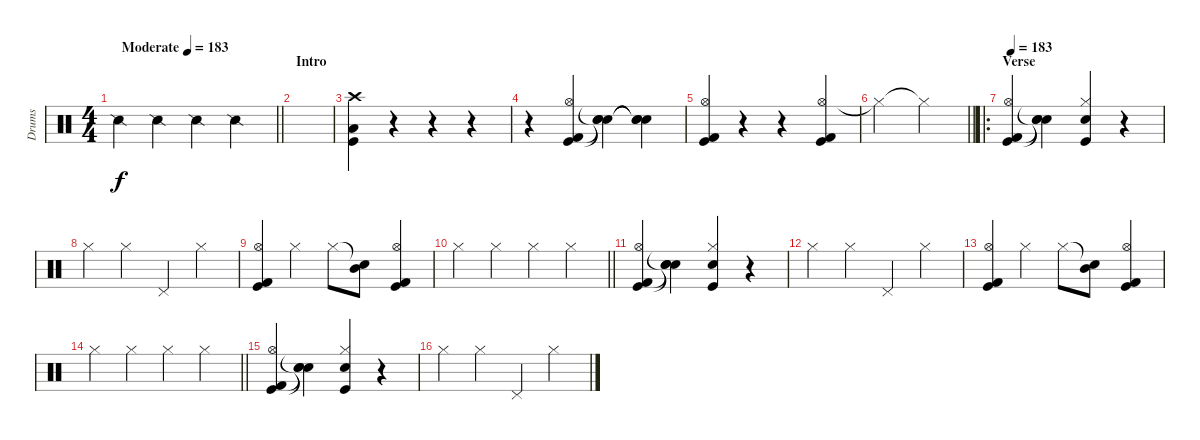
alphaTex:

\track ("Drums" "Drums") {instrument percussion}
\staff
\articulation defaults
\ts (4 4)
\tempo (183 "Moderate")
\clef neutral
\barLineRight lightlight
\ks c "Snare (side stick) 2".4{dy f} "Snare (side stick) 2".4 "Snare (side stick) 2".4 "Snare (side stick) 2".4
|
\section ("" "Intro")
|
("Crash high (hit)" "Low Floor Tom (hit)" "Kick (hit)").4 r.4 r.4 r.4 |
r.4 ("Hi-Hat (open)" "Kick (hit)" "Kick (hit) 2").4 ("Snare (hit)"{t} "Snare (hit)"{t} "Snare (hit)"{t}).4 ("Snare (hit)"{t} "Snare (hit)"{t} "Snare (hit)"{t}).4 |
("Hi-Hat (open)" "Kick (hit)" "Kick (hit) 2").4 r.4 r.4 ("Hi-Hat (open)" "Kick (hit)" "Kick (hit) 2").4 |
\barLineRight lightlight "Hi-Hat (closed)"{t}.2 "Hi-Hat (closed)"{t}.2
|
\ro
\section ("" "Verse")
\tempo 183
("Hi-Hat (open)" "Kick (hit)" "Kick (hit) 2").4 ("Snare (hit)"{t} "Snare (hit)"{t} "Snare (hit)"{t}).4 ("Hi-Hat (closed)" "Electric Snare (hit)" "Kick (hit)").4 r.4 |
"Hi-Hat (closed)".4 "Hi-Hat (closed)".4 "Pedal Hi-Hat (hit)".4 "Hi-Hat (closed)".4 |
("Hi-Hat (open)" "Kick (hit)" "Kick (hit) 2").4 "Hi-Hat (closed)".4 "Hi-Hat (closed)".8 ("Snare (hit)"{t} "Mid Tom (hit)").8 ("Hi-Hat (open)" "Kick (hit)" "Kick (hit) 2").4 |
\barLineRight lightlight "Hi-Hat (closed)".4 "Hi-Hat (closed)".4 "Hi-Hat (closed)".4 "Hi-Hat (closed)".4
|
("Hi-Hat (open)" "Kick (hit)" "Kick (hit) 2").4 ("Snare (hit)"{t} "Snare (hit)"{t} "Snare (hit)"{t}).4 ("Hi-Hat (closed)" "Electric Snare (hit)" "Kick (hit)").4 r.4 |
"Hi-Hat (closed)".4 "Hi-Hat (closed)".4 "Pedal Hi-Hat (hit)".4 "Hi-Hat (closed)".4 |
("Hi-Hat (open)" "Kick (hit)" "Kick (hit) 2").4 "Hi-Hat (closed)".4 "Hi-Hat (closed)".8 ("Snare (hit)"{t} "Mid Tom (hit)").8 ("Hi-Hat (open)" "Kick (hit)" "Kick (hit) 2").4 |
\barLineRight lightlight "Hi-Hat (closed)".4 "Hi-Hat (closed)".4 "Hi-Hat (closed)".4 "Hi-Hat (closed)".4
|
("Hi-Hat (open)" "Kick (hit)" "Kick (hit) 2").4 ("Snare (hit)"{t} "Snare (hit)"{t} "Snare (hit)"{t}).4 ("Hi-Hat (closed)" "Electric Snare (hit)" "Kick (hit)").4 r.4 |
"Hi-Hat (closed)".4 "Hi-Hat (closed)".4 "Pedal Hi-Hat (hit)".4 "Hi-Hat (closed)".4
